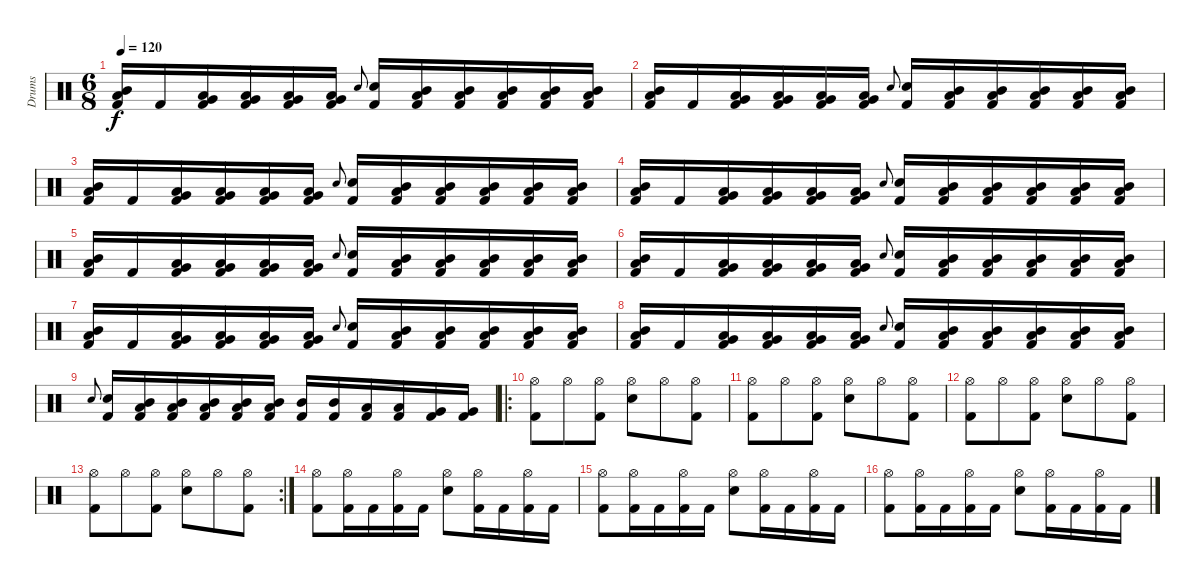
\track ("Drums" "Drums") {instrument percussion}
\staff {score}
\articulation defaults
\ts (6 8)
\tempo 120
\clef neutral
\ks c
("Mid Tom (hit)" "Low Tom (hit)" "Kick (hit) 2").16{dy f} "Kick (hit) 2".16 ("Very Low Tom (hit)" "Low Tom (hit)" "Kick (hit) 2").16 ("Very Low Tom (hit)" "Low Tom (hit)" "Kick (hit) 2").16 ("Very Low Tom (hit)" "Low Tom (hit)" "Kick (hit) 2").16 ("Very Low Tom (hit)" "Low Tom (hit)" "Kick (hit) 2").16 "Electric Snare (hit)".8{gr onbeat} ("Electric Snare (hit)" "Kick (hit) 2").16 ("Mid Tom (hit)" "Low Tom (hit)" "Kick (hit) 2").16 ("Mid Tom (hit)" "Low Tom (hit)" "Kick (hit) 2").16 ("Mid Tom (hit)" "Low Tom (hit)" "Kick (hit) 2").16 ("Mid Tom (hit)" "Low Tom (hit)" "Kick (hit) 2").16 ("Mid Tom (hit)" "Low Tom (hit)" "Kick (hit) 2").16 |
("Mid Tom (hit)" "Low Tom (hit)" "Kick (hit) 2").16 "Kick (hit) 2".16 ("Very Low Tom (hit)" "Low Tom (hit)" "Kick (hit) 2").16 ("Very Low Tom (hit)" "Low Tom (hit)" "Kick (hit) 2").16 ("Very Low Tom (hit)" "Low Tom (hit)" "Kick (hit) 2").16 ("Very Low Tom (hit)" "Low Tom (hit)" "Kick (hit) 2").16 "Electric Snare (hit)".8{gr onbeat} ("Electric Snare (hit)" "Kick (hit) 2").16 ("Mid Tom (hit)" "Low Tom (hit)" "Kick (hit) 2").16 ("Mid Tom (hit)" "Low Tom (hit)" "Kick (hit) 2").16 ("Mid Tom (hit)" "Low Tom (hit)" "Kick (hit) 2").16 ("Mid Tom (hit)" "Low Tom (hit)" "Kick (hit) 2").16 ("Mid Tom (hit)" "Low Tom (hit)" "Kick (hit) 2").16 |
("Mid Tom (hit)" "Low Tom (hit)" "Kick (hit) 2").16 "Kick (hit) 2".16 ("Very Low Tom (hit)" "Low Tom (hit)" "Kick (hit) 2").16 ("Very Low Tom (hit)" "Low Tom (hit)" "Kick (hit) 2").16 ("Very Low Tom (hit)" "Low Tom (hit)" "Kick (hit) 2").16 ("Very Low Tom (hit)" "Low Tom (hit)" "Kick (hit) 2").16 "Electric Snare (hit)".8{gr onbeat} ("Electric Snare (hit)" "Kick (hit) 2").16 ("Mid Tom (hit)" "Low Tom (hit)" "Kick (hit) 2").16 ("Mid Tom (hit)" "Low Tom (hit)" "Kick (hit) 2").16 ("Mid Tom (hit)" "Low Tom (hit)" "Kick (hit) 2").16 ("Mid Tom (hit)" "Low Tom (hit)" "Kick (hit) 2").16 ("Mid Tom (hit)" "Low Tom (hit)" "Kick (hit) 2").16 |
("Mid Tom (hit)" "Low Tom (hit)" "Kick (hit) 2").16 "Kick (hit) 2".16 ("Very Low Tom (hit)" "Low Tom (hit)" "Kick (hit) 2").16 ("Very Low Tom (hit)" "Low Tom (hit)" "Kick (hit) 2").16 ("Very Low Tom (hit)" "Low Tom (hit)" "Kick (hit) 2").16 ("Very Low Tom (hit)" "Low Tom (hit)" "Kick (hit) 2").16 "Electric Snare (hit)".8{gr onbeat} ("Electric Snare (hit)" "Kick (hit) 2").16 ("Mid Tom (hit)" "Low Tom (hit)" "Kick (hit) 2").16 ("Mid Tom (hit)" "Low Tom (hit)" "Kick (hit) 2").16 ("Mid Tom (hit)" "Low Tom (hit)" "Kick (hit) 2").16 ("Mid Tom (hit)" "Low Tom (hit)" "Kick (hit) 2").16 ("Mid Tom (hit)" "Low Tom (hit)" "Kick (hit) 2").16 |
("Mid Tom (hit)" "Low Tom (hit)" "Kick (hit) 2").16 "Kick (hit) 2".16 ("Very Low Tom (hit)" "Low Tom (hit)" "Kick (hit) 2").16 ("Very Low Tom (hit)" "Low Tom (hit)" "Kick (hit) 2").16 ("Very Low Tom (hit)" "Low Tom (hit)" "Kick (hit) 2").16 ("Very Low Tom (hit)" "Low Tom (hit)" "Kick (hit) 2").16 "Electric Snare (hit)".8{gr onbeat} ("Electric Snare (hit)" "Kick (hit) 2").16 ("Mid Tom (hit)" "Low Tom (hit)" "Kick (hit) 2").16 ("Mid Tom (hit)" "Low Tom (hit)" "Kick (hit) 2").16 ("Mid Tom (hit)" "Low Tom (hit)" "Kick (hit) 2").16 ("Mid Tom (hit)" "Low Tom (hit)" "Kick (hit) 2").16 ("Mid Tom (hit)" "Low Tom (hit)" "Kick (hit) 2").16 |
("Mid Tom (hit)" "Low Tom (hit)" "Kick (hit) 2").16 "Kick (hit) 2".16 ("Very Low Tom (hit)" "Low Tom (hit)" "Kick (hit) 2").16 ("Very Low Tom (hit)" "Low Tom (hit)" "Kick (hit) 2").16 ("Very Low Tom (hit)" "Low Tom (hit)" "Kick (hit) 2").16 ("Very Low Tom (hit)" "Low Tom (hit)" "Kick (hit) 2").16 "Electric Snare (hit)".8{gr onbeat} ("Electric Snare (hit)" "Kick (hit) 2").16 ("Mid Tom (hit)" "Low Tom (hit)" "Kick (hit) 2").16 ("Mid Tom (hit)" "Low Tom (hit)" "Kick (hit) 2").16 ("Mid Tom (hit)" "Low Tom (hit)" "Kick (hit) 2").16 ("Mid Tom (hit)" "Low Tom (hit)" "Kick (hit) 2").16 ("Mid Tom (hit)" "Low Tom (hit)" "Kick (hit) 2").16 |
("Mid Tom (hit)" "Low Tom (hit)" "Kick (hit) 2").16 "Kick (hit) 2".16 ("Very Low Tom (hit)" "Low Tom (hit)" "Kick (hit) 2").16 ("Very Low Tom (hit)" "Low Tom (hit)" "Kick (hit) 2").16 ("Very Low Tom (hit)" "Low Tom (hit)" "Kick (hit) 2").16 ("Very Low Tom (hit)" "Low Tom (hit)" "Kick (hit) 2").16 "Electric Snare (hit)".8{gr onbeat} ("Electric Snare (hit)" "Kick (hit) 2").16 ("Mid Tom (hit)" "Low Tom (hit)" "Kick (hit) 2").16 ("Mid Tom (hit)" "Low Tom (hit)" "Kick (hit) 2").16 ("Mid Tom (hit)" "Low Tom (hit)" "Kick (hit) 2").16 ("Mid Tom (hit)" "Low Tom (hit)" "Kick (hit) 2").16 ("Mid Tom (hit)" "Low Tom (hit)" "Kick (hit) 2").16 |
("Mid Tom (hit)" "Low Tom (hit)" "Kick (hit) 2").16 "Kick (hit) 2".16 ("Very Low Tom (hit)" "Low Tom (hit)" "Kick (hit) 2").16 ("Very Low Tom (hit)" "Low Tom (hit)" "Kick (hit) 2").16 ("Very Low Tom (hit)" "Low Tom (hit)" "Kick (hit) 2").16 ("Very Low Tom (hit)" "Low Tom (hit)" "Kick (hit) 2").16 "Electric Snare (hit)".8{gr onbeat} ("Electric Snare (hit)" "Kick (hit) 2").16 ("Mid Tom (hit)" "Low Tom (hit)" "Kick (hit) 2").16 ("Mid Tom (hit)" "Low Tom (hit)" "Kick (hit) 2").16 ("Mid Tom (hit)" "Low Tom (hit)" "Kick (hit) 2").16 ("Mid Tom (hit)" "Low Tom (hit)" "Kick (hit) 2").16 ("Mid Tom (hit)" "Low Tom (hit)" "Kick (hit) 2").16 |
"Electric Snare (hit)".8{gr onbeat} ("Electric Snare (hit)" "Kick (hit) 2").16 ("Mid Tom (hit)" "Low Tom (hit)" "Kick (hit) 2").16 ("Mid Tom (hit)" "Low Tom (hit)" "Kick (hit) 2").16 ("Mid Tom (hit)" "Low Tom (hit)" "Kick (hit) 2").16 ("Mid Tom (hit)" "Low Tom (hit)" "Kick (hit) 2").16 ("Mid Tom (hit)" "Low Tom (hit)" "Kick (hit) 2").16 ("Mid Tom (hit)" "Kick (hit) 2").16 ("Mid Tom (hit)" "Kick (hit) 2").16 ("Low Tom (hit)" "Kick (hit) 2").16 ("Low Tom (hit)" "Kick (hit) 2").16 ("Very Low Tom (hit)" "Kick (hit) 2").16 ("Very Low Tom (hit)" "Kick (hit) 2").16 |
\ro
("Hi-Hat (open)" "Kick (hit) 2").8 "Hi-Hat (open)".8 ("Hi-Hat (open)" "Kick (hit) 2").8 ("Hi-Hat (open)" "Electric Snare (hit)").8 "Hi-Hat (open)".8 ("Hi-Hat (open)" "Kick (hit) 2").8 |
("Hi-Hat (open)" "Kick (hit) 2").8 "Hi-Hat (open)".8 ("Hi-Hat (open)" "Kick (hit) 2").8 ("Hi-Hat (open)" "Electric Snare (hit)").8 "Hi-Hat (open)".8 ("Hi-Hat (open)" "Kick (hit) 2").8 |
("Hi-Hat (open)" "Kick (hit) 2").8 "Hi-Hat (open)".8 ("Hi-Hat (open)" "Kick (hit) 2").8 ("Hi-Hat (open)" "Electric Snare (hit)").8 "Hi-Hat (open)".8 ("Hi-Hat (open)" "Kick (hit) 2").8 |
\rc 2
("Hi-Hat (open)" "Kick (hit) 2").8 "Hi-Hat (open)".8 ("Hi-Hat (open)" "Kick (hit) 2").8 ("Hi-Hat (open)" "Electric Snare (hit)").8 "Hi-Hat (open)".8 ("Hi-Hat (open)" "Kick (hit) 2").8 |
("Hi-Hat (open)" "Kick (hit) 2").8 ("Hi-Hat (open)" "Kick (hit) 2").16 "Kick (hit) 2".16 ("Hi-Hat (open)" "Kick (hit) 2").16 "Kick (hit) 2".16 ("Hi-Hat (open)" "Electric Snare (hit)").8 ("Hi-Hat (open)" "Kick (hit) 2").16 "Kick (hit) 2".16 ("Hi-Hat (open)" "Kick (hit) 2").16 "Kick (hit) 2".16 |
("Hi-Hat (open)" "Kick (hit) 2").8 ("Hi-Hat (open)" "Kick (hit) 2").16 "Kick (hit) 2".16 ("Hi-Hat (open)" "Kick (hit) 2").16 "Kick (hit) 2".16 ("Hi-Hat (open)" "Electric Snare (hit)").8 ("Hi-Hat (open)" "Kick (hit) 2").16 "Kick (hit) 2".16 ("Hi-Hat (open)" "Kick (hit) 2").16 "Kick (hit) 2".16 |
("Hi-Hat (open)" "Kick (hit) 2").8 ("Hi-Hat (open)" "Kick (hit) 2").16 "Kick (hit) 2".16 ("Hi-Hat (open)" "Kick (hit) 2").16 "Kick (hit) 2".16 ("Hi-Hat (open)" "Electric Snare (hit)").8 ("Hi-Hat (open)" "Kick (hit) 2").16 "Kick (hit) 2".16 ("Hi-Hat (open)" "Kick (hit) 2").16 "Kick (hit) 2".16
